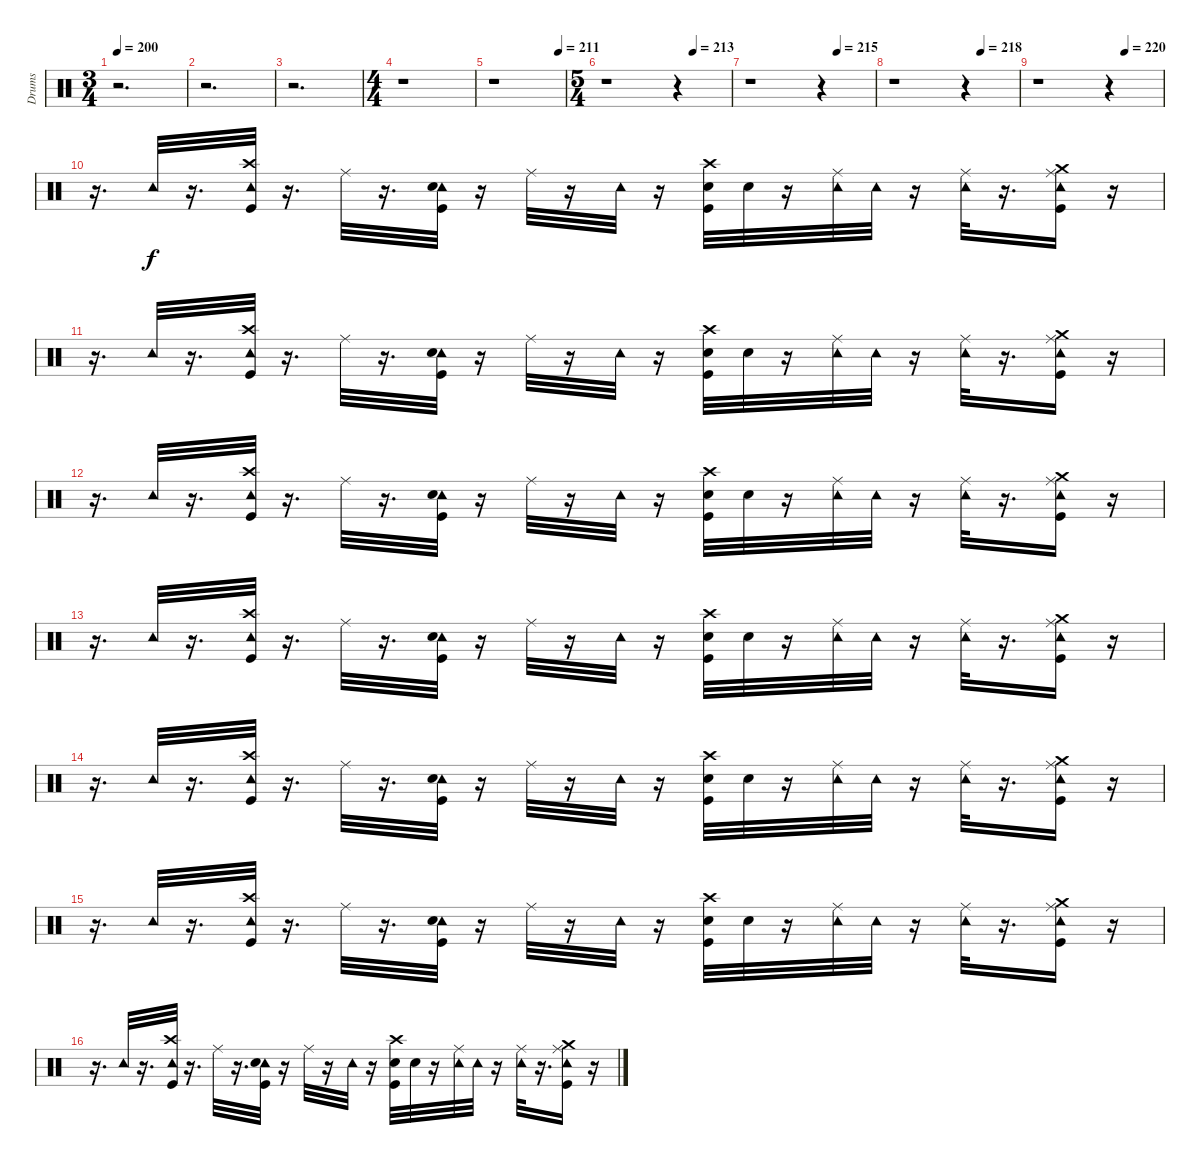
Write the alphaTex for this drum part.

\track ("Drums" "Drums") {instrument percussion}
\staff {score}
\articulation defaults
\ts (3 4)
\tempo 200
\clef neutral
\ks c
r.2{d dy f} |
r.2{d} |
r.2{d} |
\ts (4 4)
r.1 |
\tempo (211 0.9166666666666666)
r.1 |
\ts (5 4)
\tempo (213 0.7)
r.1 r.4 |
\tempo (215 0.7)
r.1 r.4 |
\tempo (218 0.7)
r.1 r.4 |
\tempo (220 0.7)
r.1 r.4 |
r.16{d} "Tambourine (hit)".32 r.16{d} ("Tambourine (hit)" "Crash high (hit)" "Kick (hit)").32 r.16{d} "Ride (middle)".32 r.16{d} ("Tambourine (hit)" "Snare (hit) 2" "Kick (hit)").32 r.16 "Ride (middle)".32 r.16 "Tambourine (hit)".32 r.16 ("Crash high (hit)" "Kick (hit)" "Snare (hit) 2").32 "Snare (hit)".32 r.16 ("Tambourine (hit)" "Ride (middle)").32 "Tambourine (hit)".32 r.16 ("Ride (middle)" "Tambourine (hit)").32 r.16{d} ("Crash medium (hit)" "Tambourine (hit)" "Ride (middle)" "Kick (hit)").16 r.16 |
r.16{d} "Tambourine (hit)".32 r.16{d} ("Tambourine (hit)" "Crash high (hit)" "Kick (hit)").32 r.16{d} "Ride (middle)".32 r.16{d} ("Tambourine (hit)" "Snare (hit) 2" "Kick (hit)").32 r.16 "Ride (middle)".32 r.16 "Tambourine (hit)".32 r.16 ("Crash high (hit)" "Kick (hit)" "Snare (hit) 2").32 "Snare (hit)".32 r.16 ("Tambourine (hit)" "Ride (middle)").32 "Tambourine (hit)".32 r.16 ("Ride (middle)" "Tambourine (hit)").32 r.16{d} ("Crash medium (hit)" "Tambourine (hit)" "Ride (middle)" "Kick (hit)").16 r.16 |
r.16{d} "Tambourine (hit)".32 r.16{d} ("Tambourine (hit)" "Crash high (hit)" "Kick (hit)").32 r.16{d} "Ride (middle)".32 r.16{d} ("Tambourine (hit)" "Snare (hit) 2" "Kick (hit)").32 r.16 "Ride (middle)".32 r.16 "Tambourine (hit)".32 r.16 ("Crash high (hit)" "Kick (hit)" "Snare (hit) 2").32 "Snare (hit)".32 r.16 ("Tambourine (hit)" "Ride (middle)").32 "Tambourine (hit)".32 r.16 ("Ride (middle)" "Tambourine (hit)").32 r.16{d} ("Crash medium (hit)" "Tambourine (hit)" "Ride (middle)" "Kick (hit)").16 r.16 |
r.16{d} "Tambourine (hit)".32 r.16{d} ("Tambourine (hit)" "Crash high (hit)" "Kick (hit)").32 r.16{d} "Ride (middle)".32 r.16{d} ("Tambourine (hit)" "Snare (hit) 2" "Kick (hit)").32 r.16 "Ride (middle)".32 r.16 "Tambourine (hit)".32 r.16 ("Crash high (hit)" "Kick (hit)" "Snare (hit) 2").32 "Snare (hit)".32 r.16 ("Tambourine (hit)" "Ride (middle)").32 "Tambourine (hit)".32 r.16 ("Ride (middle)" "Tambourine (hit)").32 r.16{d} ("Crash medium (hit)" "Tambourine (hit)" "Ride (middle)" "Kick (hit)").16 r.16 |
r.16{d} "Tambourine (hit)".32 r.16{d} ("Tambourine (hit)" "Crash high (hit)" "Kick (hit)").32 r.16{d} "Ride (middle)".32 r.16{d} ("Tambourine (hit)" "Snare (hit) 2" "Kick (hit)").32 r.16 "Ride (middle)".32 r.16 "Tambourine (hit)".32 r.16 ("Crash high (hit)" "Kick (hit)" "Snare (hit) 2").32 "Snare (hit)".32 r.16 ("Tambourine (hit)" "Ride (middle)").32 "Tambourine (hit)".32 r.16 ("Ride (middle)" "Tambourine (hit)").32 r.16{d} ("Crash medium (hit)" "Tambourine (hit)" "Ride (middle)" "Kick (hit)").16 r.16 |
r.16{d} "Tambourine (hit)".32 r.16{d} ("Tambourine (hit)" "Crash high (hit)" "Kick (hit)").32 r.16{d} "Ride (middle)".32 r.16{d} ("Tambourine (hit)" "Snare (hit) 2" "Kick (hit)").32 r.16 "Ride (middle)".32 r.16 "Tambourine (hit)".32 r.16 ("Crash high (hit)" "Kick (hit)" "Snare (hit) 2").32 "Snare (hit)".32 r.16 ("Tambourine (hit)" "Ride (middle)").32 "Tambourine (hit)".32 r.16 ("Ride (middle)" "Tambourine (hit)").32 r.16{d} ("Crash medium (hit)" "Tambourine (hit)" "Ride (middle)" "Kick (hit)").16 r.16 |
r.16{d} "Tambourine (hit)".32 r.16{d} ("Tambourine (hit)" "Crash high (hit)" "Kick (hit)").32 r.16{d} "Ride (middle)".32 r.16{d} ("Tambourine (hit)" "Snare (hit) 2" "Kick (hit)").32 r.16 "Ride (middle)".32 r.16 "Tambourine (hit)".32 r.16 ("Crash high (hit)" "Kick (hit)" "Snare (hit) 2").32 "Snare (hit)".32 r.16 ("Tambourine (hit)" "Ride (middle)").32 "Tambourine (hit)".32 r.16 ("Ride (middle)" "Tambourine (hit)").32 r.16{d} ("Crash medium (hit)" "Tambourine (hit)" "Ride (middle)" "Kick (hit)").16 r.16
